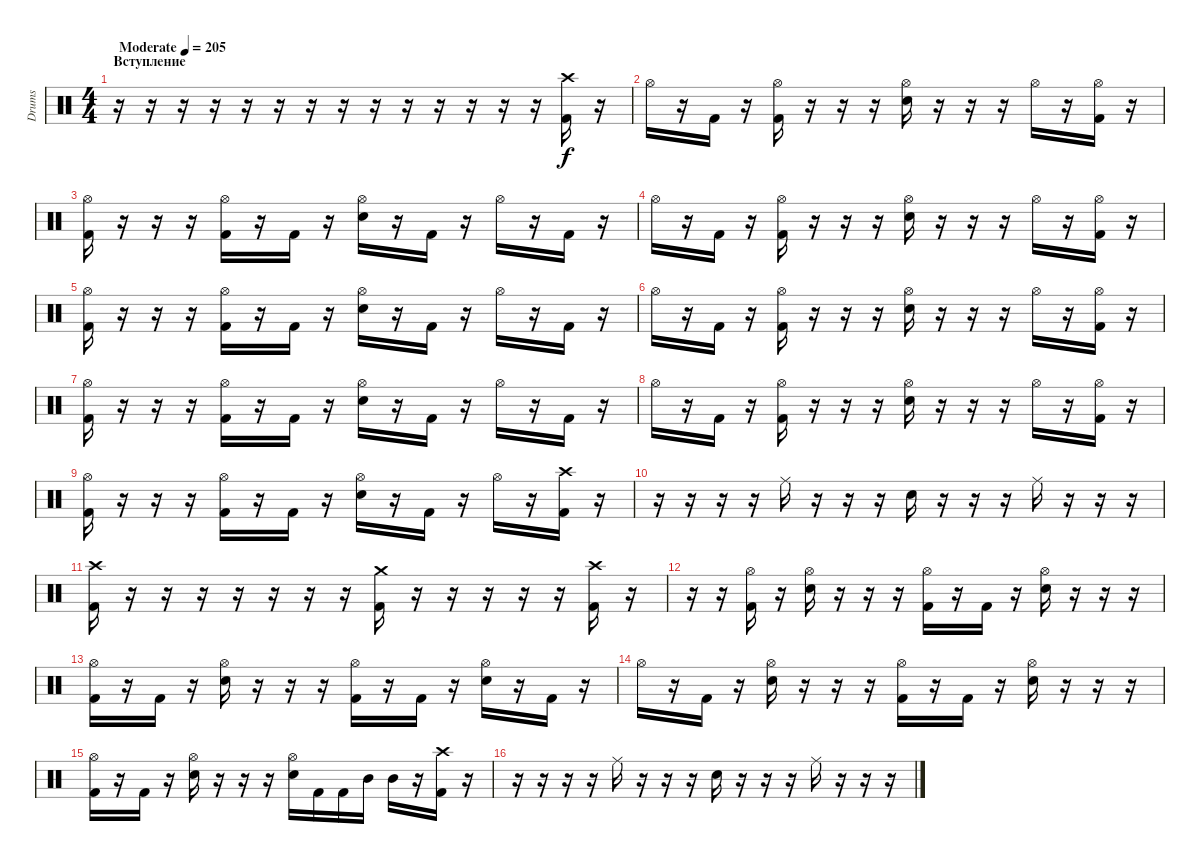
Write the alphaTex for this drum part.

\track ("Drums" "Drums") {instrument percussion}
\staff {score}
\articulation defaults
\ts (4 4)
\section ("" "Вступление")
\tempo (205 "Moderate")
\clef neutral
\ks c
r.16{dy f} r.16 r.16 r.16 r.16 r.16 r.16 r.16 r.16 r.16 r.16 r.16 r.16 r.16 ("Crash high (hit)" "Kick (hit) 2").16 r.16 |
"Hi-Hat (open)".16 r.16 "Kick (hit) 2".16 r.16 ("Hi-Hat (open)" "Kick (hit) 2").16 r.16 r.16 r.16 ("Hi-Hat (open)" "Electric Snare (hit)").16 r.16 r.16 r.16 "Hi-Hat (open)".16 r.16 ("Hi-Hat (open)" "Kick (hit) 2").16 r.16 |
("Hi-Hat (open)" "Kick (hit) 2").16 r.16 r.16 r.16 ("Hi-Hat (open)" "Kick (hit) 2").16 r.16 "Kick (hit) 2".16 r.16 ("Hi-Hat (open)" "Electric Snare (hit)").16 r.16 "Kick (hit) 2".16 r.16 "Hi-Hat (open)".16 r.16 "Kick (hit) 2".16 r.16 |
"Hi-Hat (open)".16 r.16 "Kick (hit) 2".16 r.16 ("Hi-Hat (open)" "Kick (hit) 2").16 r.16 r.16 r.16 ("Hi-Hat (open)" "Electric Snare (hit)").16 r.16 r.16 r.16 "Hi-Hat (open)".16 r.16 ("Hi-Hat (open)" "Kick (hit) 2").16 r.16 |
("Hi-Hat (open)" "Kick (hit) 2").16 r.16 r.16 r.16 ("Hi-Hat (open)" "Kick (hit) 2").16 r.16 "Kick (hit) 2".16 r.16 ("Hi-Hat (open)" "Electric Snare (hit)").16 r.16 "Kick (hit) 2".16 r.16 "Hi-Hat (open)".16 r.16 "Kick (hit) 2".16 r.16 |
"Hi-Hat (open)".16 r.16 "Kick (hit) 2".16 r.16 ("Hi-Hat (open)" "Kick (hit) 2").16 r.16 r.16 r.16 ("Hi-Hat (open)" "Electric Snare (hit)").16 r.16 r.16 r.16 "Hi-Hat (open)".16 r.16 ("Hi-Hat (open)" "Kick (hit) 2").16 r.16 |
("Hi-Hat (open)" "Kick (hit) 2").16 r.16 r.16 r.16 ("Hi-Hat (open)" "Kick (hit) 2").16 r.16 "Kick (hit) 2".16 r.16 ("Hi-Hat (open)" "Electric Snare (hit)").16 r.16 "Kick (hit) 2".16 r.16 "Hi-Hat (open)".16 r.16 "Kick (hit) 2".16 r.16 |
"Hi-Hat (open)".16 r.16 "Kick (hit) 2".16 r.16 ("Hi-Hat (open)" "Kick (hit) 2").16 r.16 r.16 r.16 ("Hi-Hat (open)" "Electric Snare (hit)").16 r.16 r.16 r.16 "Hi-Hat (open)".16 r.16 ("Hi-Hat (open)" "Kick (hit) 2").16 r.16 |
("Hi-Hat (open)" "Kick (hit) 2").16 r.16 r.16 r.16 ("Hi-Hat (open)" "Kick (hit) 2").16 r.16 "Kick (hit) 2".16 r.16 ("Hi-Hat (open)" "Electric Snare (hit)").16 r.16 "Kick (hit) 2".16 r.16 "Hi-Hat (open)".16 r.16 ("Crash high (hit)" "Kick (hit) 2").16 r.16 |
r.16 r.16 r.16 r.16 "Ride (middle)".16 r.16 r.16 r.16 "Electric Snare (hit)".16 r.16 r.16 r.16 "Ride (middle)".16 r.16 r.16 r.16 |
("Crash high (hit)" "Kick (hit) 2").16 r.16 r.16 r.16 r.16 r.16 r.16 r.16 ("Crash medium (hit)" "Kick (hit) 2").16 r.16 r.16 r.16 r.16 r.16 ("Crash high (hit)" "Kick (hit) 2").16 r.16 |
r.16 r.16 ("Hi-Hat (open)" "Kick (hit) 2").16 r.16 ("Hi-Hat (open)" "Electric Snare (hit)").16 r.16 r.16 r.16 ("Hi-Hat (open)" "Kick (hit) 2").16 r.16 "Kick (hit) 2".16 r.16 ("Hi-Hat (open)" "Electric Snare (hit)").16 r.16 r.16 r.16 |
("Hi-Hat (open)" "Kick (hit) 2").16 r.16 "Kick (hit) 2".16 r.16 ("Hi-Hat (open)" "Electric Snare (hit)").16 r.16 r.16 r.16 ("Hi-Hat (open)" "Kick (hit) 2").16 r.16 "Kick (hit) 2".16 r.16 ("Hi-Hat (open)" "Electric Snare (hit)").16 r.16 "Kick (hit) 2".16 r.16 |
"Hi-Hat (open)".16 r.16 "Kick (hit) 2".16 r.16 ("Hi-Hat (open)" "Electric Snare (hit)").16 r.16 r.16 r.16 ("Hi-Hat (open)" "Kick (hit) 2").16 r.16 "Kick (hit) 2".16 r.16 ("Hi-Hat (open)" "Electric Snare (hit)").16 r.16 r.16 r.16 |
("Hi-Hat (open)" "Kick (hit) 2").16 r.16 "Kick (hit) 2".16 r.16 ("Hi-Hat (open)" "Electric Snare (hit)").16 r.16 r.16 r.16 ("Hi-Hat (open)" "Electric Snare (hit)").16 "Kick (hit) 2".16 "Kick (hit) 2".16 "Mid Tom (hit)".16 "Mid Tom (hit)".16 r.16 ("Crash high (hit)" "Kick (hit) 2").16 r.16 |
r.16 r.16 r.16 r.16 "Ride (middle)".16 r.16 r.16 r.16 "Electric Snare (hit)".16 r.16 r.16 r.16 "Ride (middle)".16 r.16 r.16 r.16
